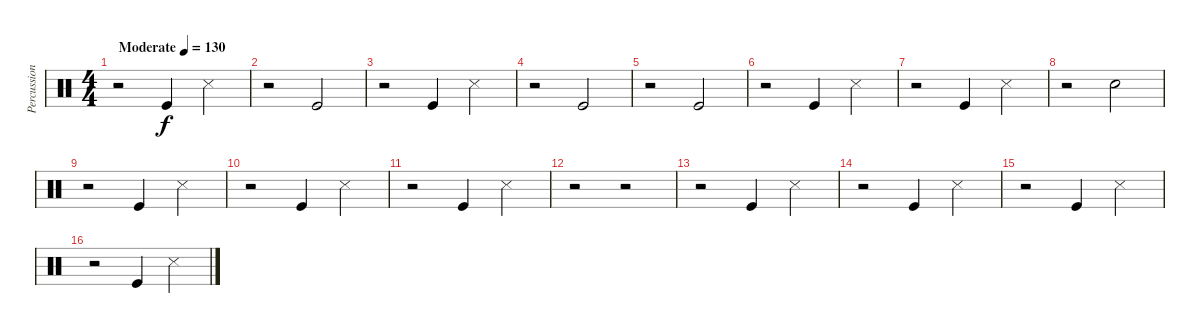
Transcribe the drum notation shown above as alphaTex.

\track ("Percussion" "Percussion") {instrument percussion}
\staff {score}
\articulation defaults
\ts (4 4)
\tempo (130 "Moderate")
\clef neutral
\ks c
r.2{dy f} "Kick (hit)".4 "Snare (side stick) 3".4 |
r.2 "Kick (hit)".2 |
r.2 "Kick (hit)".4 "Snare (side stick) 3".4 |
r.2 "Kick (hit)".2 |
r.2 "Kick (hit)".2 |
r.2 "Kick (hit)".4 "Snare (side stick) 3".4 |
r.2 "Kick (hit)".4 "Snare (side stick) 3".4 |
r.2 "Hand Clap (hit)".2 |
r.2 "Kick (hit)".4 "Snare (side stick) 3".4 |
r.2 "Kick (hit)".4 "Snare (side stick) 3".4 |
r.2 "Kick (hit)".4 "Snare (side stick) 3".4 |
r.2 r.2 |
r.2 "Kick (hit)".4 "Snare (side stick) 3".4 |
r.2 "Kick (hit)".4 "Snare (side stick) 3".4 |
r.2 "Kick (hit)".4 "Snare (side stick) 3".4 |
r.2 "Kick (hit)".4 "Snare (side stick) 3".4
